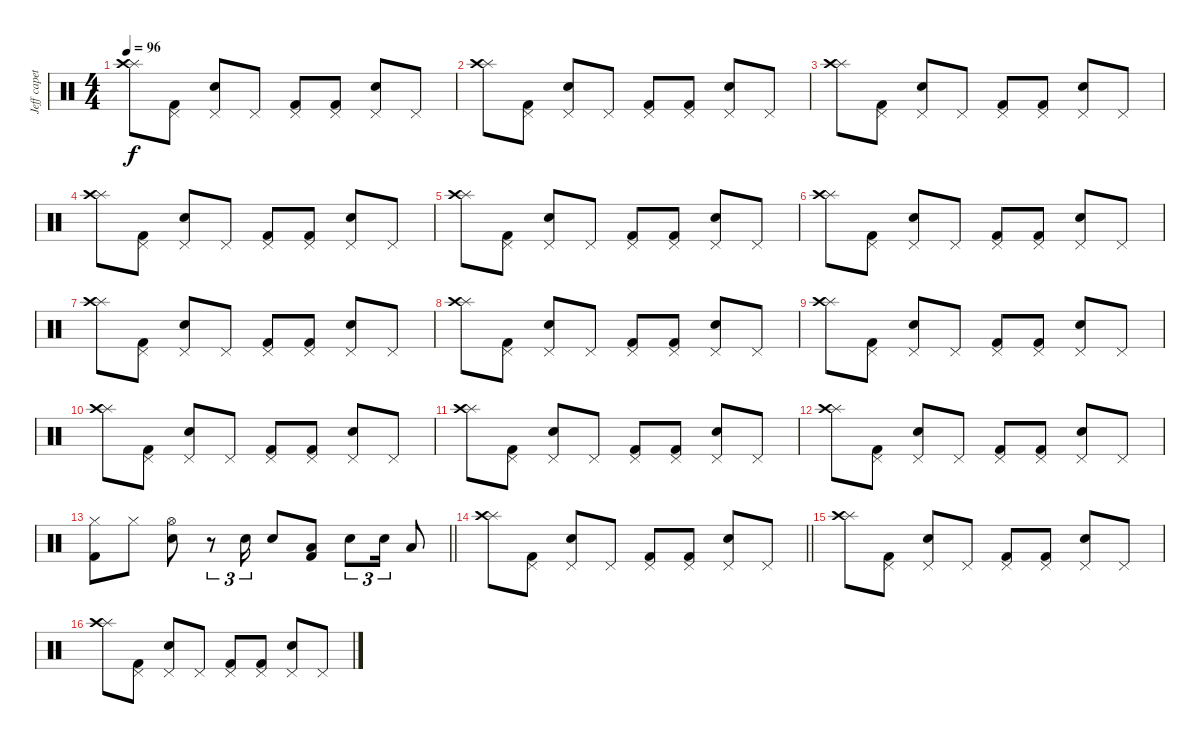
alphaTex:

\track ("Jeff capetally" "Jeff capet") {instrument percussion}
\staff {score}
\articulation defaults
\ts (4 4)
\tempo 96
\clef neutral
\ks c
("Splash (hit)" "Crash high (hit)").8{dy f} ("Pedal Hi-Hat (hit)" "Kick (hit) 2").8 ("Pedal Hi-Hat (hit)" "Snare (hit) 2").8 "Pedal Hi-Hat (hit)".8 ("Pedal Hi-Hat (hit)" "Kick (hit) 2").8 ("Pedal Hi-Hat (hit)" "Kick (hit) 2").8 ("Pedal Hi-Hat (hit)" "Snare (hit) 2").8 "Pedal Hi-Hat (hit)".8 |
("Splash (hit)" "Crash high (hit)").8 ("Pedal Hi-Hat (hit)" "Kick (hit) 2").8 ("Pedal Hi-Hat (hit)" "Snare (hit) 2").8 "Pedal Hi-Hat (hit)".8 ("Pedal Hi-Hat (hit)" "Kick (hit) 2").8 ("Pedal Hi-Hat (hit)" "Kick (hit) 2").8 ("Pedal Hi-Hat (hit)" "Snare (hit) 2").8 "Pedal Hi-Hat (hit)".8 |
("Splash (hit)" "Crash high (hit)").8 ("Pedal Hi-Hat (hit)" "Kick (hit) 2").8 ("Pedal Hi-Hat (hit)" "Snare (hit) 2").8 "Pedal Hi-Hat (hit)".8 ("Pedal Hi-Hat (hit)" "Kick (hit) 2").8 ("Pedal Hi-Hat (hit)" "Kick (hit) 2").8 ("Pedal Hi-Hat (hit)" "Snare (hit) 2").8 "Pedal Hi-Hat (hit)".8 |
("Splash (hit)" "Crash high (hit)").8 ("Pedal Hi-Hat (hit)" "Kick (hit) 2").8 ("Pedal Hi-Hat (hit)" "Snare (hit) 2").8 "Pedal Hi-Hat (hit)".8 ("Pedal Hi-Hat (hit)" "Kick (hit) 2").8 ("Pedal Hi-Hat (hit)" "Kick (hit) 2").8 ("Pedal Hi-Hat (hit)" "Snare (hit) 2").8 "Pedal Hi-Hat (hit)".8 |
("Splash (hit)" "Crash high (hit)").8 ("Pedal Hi-Hat (hit)" "Kick (hit) 2").8 ("Pedal Hi-Hat (hit)" "Snare (hit) 2").8 "Pedal Hi-Hat (hit)".8 ("Pedal Hi-Hat (hit)" "Kick (hit) 2").8 ("Pedal Hi-Hat (hit)" "Kick (hit) 2").8 ("Pedal Hi-Hat (hit)" "Snare (hit) 2").8 "Pedal Hi-Hat (hit)".8 |
("Splash (hit)" "Crash high (hit)").8 ("Pedal Hi-Hat (hit)" "Kick (hit) 2").8 ("Pedal Hi-Hat (hit)" "Snare (hit) 2").8 "Pedal Hi-Hat (hit)".8 ("Pedal Hi-Hat (hit)" "Kick (hit) 2").8 ("Pedal Hi-Hat (hit)" "Kick (hit) 2").8 ("Pedal Hi-Hat (hit)" "Snare (hit) 2").8 "Pedal Hi-Hat (hit)".8 |
("Splash (hit)" "Crash high (hit)").8 ("Pedal Hi-Hat (hit)" "Kick (hit) 2").8 ("Pedal Hi-Hat (hit)" "Snare (hit) 2").8 "Pedal Hi-Hat (hit)".8 ("Pedal Hi-Hat (hit)" "Kick (hit) 2").8 ("Pedal Hi-Hat (hit)" "Kick (hit) 2").8 ("Pedal Hi-Hat (hit)" "Snare (hit) 2").8 "Pedal Hi-Hat (hit)".8 |
("Splash (hit)" "Crash high (hit)").8 ("Pedal Hi-Hat (hit)" "Kick (hit) 2").8 ("Pedal Hi-Hat (hit)" "Snare (hit) 2").8 "Pedal Hi-Hat (hit)".8 ("Pedal Hi-Hat (hit)" "Kick (hit) 2").8 ("Pedal Hi-Hat (hit)" "Kick (hit) 2").8 ("Pedal Hi-Hat (hit)" "Snare (hit) 2").8 "Pedal Hi-Hat (hit)".8 |
("Splash (hit)" "Crash high (hit)").8 ("Pedal Hi-Hat (hit)" "Kick (hit) 2").8 ("Pedal Hi-Hat (hit)" "Snare (hit) 2").8 "Pedal Hi-Hat (hit)".8 ("Pedal Hi-Hat (hit)" "Kick (hit) 2").8 ("Pedal Hi-Hat (hit)" "Kick (hit) 2").8 ("Pedal Hi-Hat (hit)" "Snare (hit) 2").8 "Pedal Hi-Hat (hit)".8 |
("Splash (hit)" "Crash high (hit)").8 ("Pedal Hi-Hat (hit)" "Kick (hit) 2").8 ("Pedal Hi-Hat (hit)" "Snare (hit) 2").8 "Pedal Hi-Hat (hit)".8 ("Pedal Hi-Hat (hit)" "Kick (hit) 2").8 ("Pedal Hi-Hat (hit)" "Kick (hit) 2").8 ("Pedal Hi-Hat (hit)" "Snare (hit) 2").8 "Pedal Hi-Hat (hit)".8 |
("Splash (hit)" "Crash high (hit)").8 ("Pedal Hi-Hat (hit)" "Kick (hit) 2").8 ("Pedal Hi-Hat (hit)" "Snare (hit) 2").8 "Pedal Hi-Hat (hit)".8 ("Pedal Hi-Hat (hit)" "Kick (hit) 2").8 ("Pedal Hi-Hat (hit)" "Kick (hit) 2").8 ("Pedal Hi-Hat (hit)" "Snare (hit) 2").8 "Pedal Hi-Hat (hit)".8 |
("Splash (hit)" "Crash high (hit)").8 ("Pedal Hi-Hat (hit)" "Kick (hit) 2").8 ("Pedal Hi-Hat (hit)" "Snare (hit) 2").8 "Pedal Hi-Hat (hit)".8 ("Pedal Hi-Hat (hit)" "Kick (hit) 2").8 ("Pedal Hi-Hat (hit)" "Kick (hit) 2").8 ("Pedal Hi-Hat (hit)" "Snare (hit) 2").8 "Pedal Hi-Hat (hit)".8 |
\barLineRight lightlight
("Hi-Hat (closed)" "Kick (hit) 2").8 "Hi-Hat (closed)".8 ("Hi-Hat (open)" "Snare (hit) 2").8 r.8{tu (3 2)} "Snare (hit) 2".16{tu (3 2)} "Snare (hit) 2".8 ("Low Tom (hit)" "Kick (hit) 2").8 "Snare (hit) 2".8{tu (3 2)} "Snare (hit) 2".16{tu (3 2)} "Low Tom (hit)".8 |
\barLineRight lightlight
("Splash (hit)" "Crash high (hit)").8 ("Pedal Hi-Hat (hit)" "Kick (hit) 2").8 ("Pedal Hi-Hat (hit)" "Snare (hit) 2").8 "Pedal Hi-Hat (hit)".8 ("Pedal Hi-Hat (hit)" "Kick (hit) 2").8 ("Pedal Hi-Hat (hit)" "Kick (hit) 2").8 ("Pedal Hi-Hat (hit)" "Snare (hit) 2").8 "Pedal Hi-Hat (hit)".8 |
("Splash (hit)" "Crash high (hit)").8 ("Pedal Hi-Hat (hit)" "Kick (hit) 2").8 ("Pedal Hi-Hat (hit)" "Snare (hit) 2").8 "Pedal Hi-Hat (hit)".8 ("Pedal Hi-Hat (hit)" "Kick (hit) 2").8 ("Pedal Hi-Hat (hit)" "Kick (hit) 2").8 ("Pedal Hi-Hat (hit)" "Snare (hit) 2").8 "Pedal Hi-Hat (hit)".8 |
("Splash (hit)" "Crash high (hit)").8 ("Pedal Hi-Hat (hit)" "Kick (hit) 2").8 ("Pedal Hi-Hat (hit)" "Snare (hit) 2").8 "Pedal Hi-Hat (hit)".8 ("Pedal Hi-Hat (hit)" "Kick (hit) 2").8 ("Pedal Hi-Hat (hit)" "Kick (hit) 2").8 ("Pedal Hi-Hat (hit)" "Snare (hit) 2").8 "Pedal Hi-Hat (hit)".8
